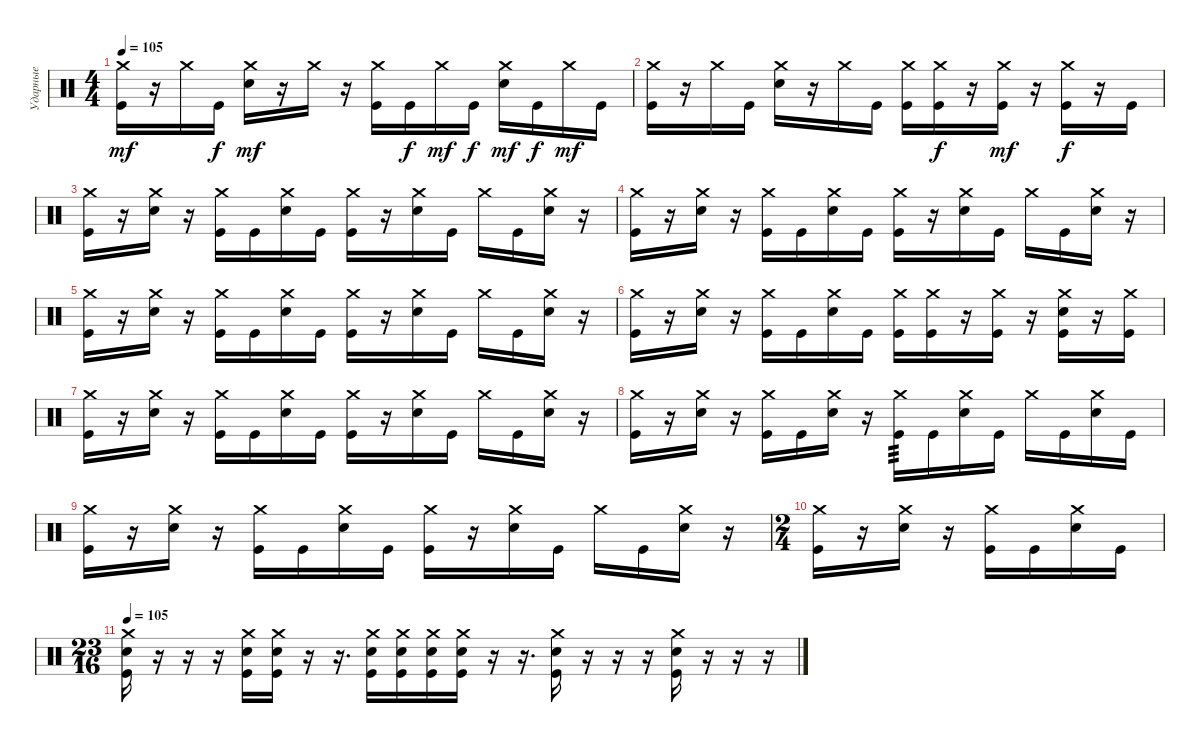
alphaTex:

\track ("Ударные" "Ударные") {instrument percussion}
\staff {score}
\articulation defaults
\ts (4 4)
\tempo 105
\clef neutral
\ks c
("Crash medium (hit)" "Kick (hit)").16{dy mf} r.16 "Crash medium (hit)".16 "Kick (hit)".16{dy f} ("Crash medium (hit)" "Electric Snare (hit)").16{dy mf} r.16 "Crash medium (hit)".16 r.16 ("Crash medium (hit)" "Kick (hit)").16 "Kick (hit)".16{dy f} "Crash medium (hit)".16{dy mf} "Kick (hit)".16{dy f} ("Crash medium (hit)" "Electric Snare (hit)").16{dy mf} "Kick (hit)".16{dy f} "Crash medium (hit)".16{dy mf} "Kick (hit)".16 |
("Crash medium (hit)" "Kick (hit)").16 r.16 "Crash medium (hit)".16 "Kick (hit)".16 ("Crash medium (hit)" "Electric Snare (hit)").16 r.16 "Crash medium (hit)".16 "Kick (hit)".16 ("Crash medium (hit)" "Kick (hit)").16 ("Crash medium (hit)" "Kick (hit)").16{dy f} r.16 ("Crash medium (hit)" "Kick (hit)").16{dy mf} r.16 ("Crash medium (hit)" "Kick (hit)").16{dy f} r.16 "Kick (hit)".16 |
("Crash medium (hit)" "Kick (hit)").16 r.16 ("Crash medium (hit)" "Electric Snare (hit)").16 r.16 ("Crash medium (hit)" "Kick (hit)").16 "Kick (hit)".16 ("Crash medium (hit)" "Electric Snare (hit)").16 "Kick (hit)".16 ("Crash medium (hit)" "Kick (hit)").16 r.16 ("Crash medium (hit)" "Electric Snare (hit)").16 "Kick (hit)".16 "Crash medium (hit)".16 "Kick (hit)".16 ("Crash medium (hit)" "Electric Snare (hit)").16 r.16 |
("Crash medium (hit)" "Kick (hit)").16 r.16 ("Crash medium (hit)" "Electric Snare (hit)").16 r.16 ("Crash medium (hit)" "Kick (hit)").16 "Kick (hit)".16 ("Crash medium (hit)" "Electric Snare (hit)").16 "Kick (hit)".16 ("Crash medium (hit)" "Kick (hit)").16 r.16 ("Crash medium (hit)" "Electric Snare (hit)").16 "Kick (hit)".16 "Crash medium (hit)".16 "Kick (hit)".16 ("Crash medium (hit)" "Electric Snare (hit)").16 r.16 |
("Crash medium (hit)" "Kick (hit)").16 r.16 ("Crash medium (hit)" "Electric Snare (hit)").16 r.16 ("Crash medium (hit)" "Kick (hit)").16 "Kick (hit)".16 ("Crash medium (hit)" "Electric Snare (hit)").16 "Kick (hit)".16 ("Crash medium (hit)" "Kick (hit)").16 r.16 ("Crash medium (hit)" "Electric Snare (hit)").16 "Kick (hit)".16 "Crash medium (hit)".16 "Kick (hit)".16 ("Crash medium (hit)" "Electric Snare (hit)").16 r.16 |
("Crash medium (hit)" "Kick (hit)").16 r.16 ("Crash medium (hit)" "Electric Snare (hit)").16 r.16 ("Crash medium (hit)" "Kick (hit)").16 "Kick (hit)".16 ("Crash medium (hit)" "Electric Snare (hit)").16 "Kick (hit)".16 ("Crash medium (hit)" "Kick (hit)").16 ("Crash medium (hit)" "Kick (hit)").16 r.16 ("Crash medium (hit)" "Kick (hit)").16 r.16 ("Crash medium (hit)" "Electric Snare (hit)" "Kick (hit)").16 r.16 ("Crash medium (hit)" "Kick (hit)").16 |
("Crash medium (hit)" "Kick (hit)").16 r.16 ("Crash medium (hit)" "Electric Snare (hit)").16 r.16 ("Crash medium (hit)" "Kick (hit)").16 "Kick (hit)".16 ("Crash medium (hit)" "Electric Snare (hit)").16 "Kick (hit)".16 ("Crash medium (hit)" "Kick (hit)").16 r.16 ("Crash medium (hit)" "Electric Snare (hit)").16 "Kick (hit)".16 "Crash medium (hit)".16 "Kick (hit)".16 ("Crash medium (hit)" "Electric Snare (hit)").16 r.16 |
("Crash medium (hit)" "Kick (hit)").16 r.16 ("Crash medium (hit)" "Electric Snare (hit)").16 r.16 ("Crash medium (hit)" "Kick (hit)").16 "Kick (hit)".16 ("Crash medium (hit)" "Electric Snare (hit)").16 r.16 ("Crash medium (hit)" "Kick (hit)").16{tp 3} "Kick (hit)".16 ("Crash medium (hit)" "Electric Snare (hit)").16 "Kick (hit)".16 "Crash medium (hit)".16 "Kick (hit)".16 ("Crash medium (hit)" "Electric Snare (hit)").16 "Kick (hit)".16 |
("Crash medium (hit)" "Kick (hit)").16 r.16 ("Crash medium (hit)" "Electric Snare (hit)").16 r.16 ("Crash medium (hit)" "Kick (hit)").16 "Kick (hit)".16 ("Crash medium (hit)" "Electric Snare (hit)").16 "Kick (hit)".16 ("Crash medium (hit)" "Kick (hit)").16 r.16 ("Crash medium (hit)" "Electric Snare (hit)").16 "Kick (hit)".16 "Crash medium (hit)".16 "Kick (hit)".16 ("Crash medium (hit)" "Electric Snare (hit)").16 r.16 |
\ts (2 4)
("Crash medium (hit)" "Kick (hit)").16 r.16 ("Crash medium (hit)" "Electric Snare (hit)").16 r.16 ("Crash medium (hit)" "Kick (hit)").16 "Kick (hit)".16 ("Crash medium (hit)" "Electric Snare (hit)").16 "Kick (hit)".16 |
\ts (23 16)
\tempo 105
("Crash medium (hit)" "Electric Snare (hit)" "Kick (hit)").16 r.16 r.16 r.16 ("Crash medium (hit)" "Electric Snare (hit)" "Kick (hit)").16 ("Crash medium (hit)" "Electric Snare (hit)" "Kick (hit)").16 r.16 r.16{d} ("Crash medium (hit)" "Electric Snare (hit)" "Kick (hit)").16 ("Crash medium (hit)" "Electric Snare (hit)" "Kick (hit)").16 ("Crash medium (hit)" "Electric Snare (hit)" "Kick (hit)").16 ("Crash medium (hit)" "Electric Snare (hit)" "Kick (hit)").16 r.16 r.16{d} ("Crash medium (hit)" "Electric Snare (hit)" "Kick (hit)").16 r.16 r.16 r.16 ("Crash medium (hit)" "Electric Snare (hit)" "Kick (hit)").16 r.16 r.16 r.16
